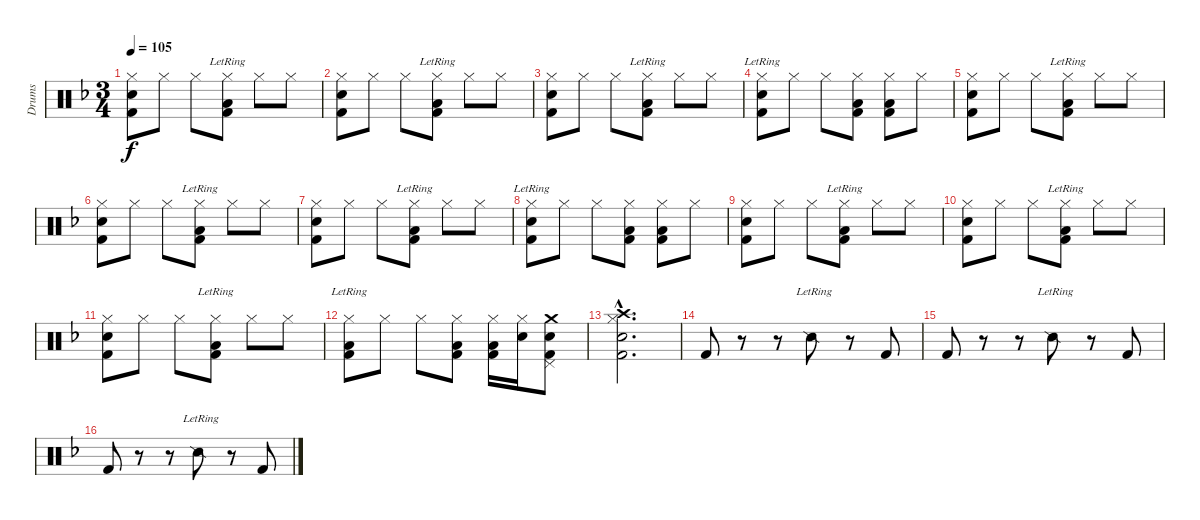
\track ("Drums" "Drums") {instrument percussion}
\staff {score}
\articulation defaults
\ts (3 4)
\tempo 105
\clef neutral
\ks f
("Hi-Hat (closed)" "Snare (hit) 2" "Kick (hit) 2").8{dy f} "Hi-Hat (closed)".8 "Hi-Hat (closed)".8 ("Hi-Hat (closed)" "Low Floor Tom (hit)"{lr} "Kick (hit) 2"{lr}).8 "Hi-Hat (closed)".8 "Hi-Hat (closed)".8 |
("Hi-Hat (closed)" "Snare (hit) 2" "Kick (hit) 2").8 "Hi-Hat (closed)".8 "Hi-Hat (closed)".8 ("Hi-Hat (closed)" "Low Floor Tom (hit)"{lr} "Kick (hit) 2"{lr}).8 "Hi-Hat (closed)".8 "Hi-Hat (closed)".8 |
("Hi-Hat (closed)" "Snare (hit) 2" "Kick (hit) 2").8 "Hi-Hat (closed)".8 "Hi-Hat (closed)".8 ("Hi-Hat (closed)" "Low Floor Tom (hit)"{lr} "Kick (hit) 2"{lr}).8 "Hi-Hat (closed)".8 "Hi-Hat (closed)".8 |
("Hi-Hat (closed)" "Snare (hit) 2"{lr} "Kick (hit) 2"{lr}).8 "Hi-Hat (closed)".8 "Hi-Hat (closed)".8 ("Hi-Hat (closed)" "Low Floor Tom (hit)" "Kick (hit) 2").8 ("Hi-Hat (closed)" "Low Floor Tom (hit)" "Kick (hit) 2").8 "Hi-Hat (closed)".8 |
("Hi-Hat (closed)" "Snare (hit) 2" "Kick (hit) 2").8 "Hi-Hat (closed)".8 "Hi-Hat (closed)".8 ("Hi-Hat (closed)" "Low Floor Tom (hit)"{lr} "Kick (hit) 2"{lr}).8 "Hi-Hat (closed)".8 "Hi-Hat (closed)".8 |
("Hi-Hat (closed)" "Snare (hit) 2" "Kick (hit) 2").8 "Hi-Hat (closed)".8 "Hi-Hat (closed)".8 ("Hi-Hat (closed)" "Low Floor Tom (hit)"{lr} "Kick (hit) 2"{lr}).8 "Hi-Hat (closed)".8 "Hi-Hat (closed)".8 |
("Hi-Hat (closed)" "Snare (hit) 2" "Kick (hit) 2").8 "Hi-Hat (closed)".8 "Hi-Hat (closed)".8 ("Hi-Hat (closed)" "Low Floor Tom (hit)"{lr} "Kick (hit) 2"{lr}).8 "Hi-Hat (closed)".8 "Hi-Hat (closed)".8 |
("Hi-Hat (closed)" "Snare (hit) 2"{lr} "Kick (hit) 2"{lr}).8 "Hi-Hat (closed)".8 "Hi-Hat (closed)".8 ("Hi-Hat (closed)" "Low Floor Tom (hit)" "Kick (hit) 2").8 ("Hi-Hat (closed)" "Low Floor Tom (hit)" "Kick (hit) 2").8 "Hi-Hat (closed)".8 |
("Hi-Hat (closed)" "Snare (hit) 2" "Kick (hit) 2").8 "Hi-Hat (closed)".8 "Hi-Hat (closed)".8 ("Hi-Hat (closed)" "Low Floor Tom (hit)"{lr} "Kick (hit) 2"{lr}).8 "Hi-Hat (closed)".8 "Hi-Hat (closed)".8 |
("Hi-Hat (closed)" "Snare (hit) 2" "Kick (hit) 2").8 "Hi-Hat (closed)".8 "Hi-Hat (closed)".8 ("Hi-Hat (closed)" "Low Floor Tom (hit)"{lr} "Kick (hit) 2"{lr}).8 "Hi-Hat (closed)".8 "Hi-Hat (closed)".8 |
("Hi-Hat (closed)" "Snare (hit) 2" "Kick (hit) 2").8 "Hi-Hat (closed)".8 "Hi-Hat (closed)".8 ("Hi-Hat (closed)" "Low Floor Tom (hit)"{lr} "Kick (hit) 2"{lr}).8 "Hi-Hat (closed)".8 "Hi-Hat (closed)".8 |
("Hi-Hat (closed)" "Low Floor Tom (hit)"{lr} "Kick (hit) 2"{lr}).8 "Hi-Hat (closed)".8 "Hi-Hat (closed)".8 ("Hi-Hat (closed)" "Low Floor Tom (hit)" "Kick (hit) 2").8 ("Hi-Hat (closed)" "Low Floor Tom (hit)" "Kick (hit) 2").16 ("Hi-Hat (closed)" "Electric Snare (hit)").16 ("Pedal Hi-Hat (hit)" "Crash medium (hit)" "Electric Snare (hit)" "Kick (hit) 2").8 |
("Hi-Hat (closed)"{hac} "Crash high (hit)"{hac} "Snare (hit) 2"{hac} "Kick (hit) 2"{hac}).2{d} |
"Kick (hit) 2".8 r.8 r.8 "Snare (side stick) 2"{lr}.8 r.8 "Kick (hit) 2".8 |
"Kick (hit) 2".8 r.8 r.8 "Snare (side stick) 2"{lr}.8 r.8 "Kick (hit) 2".8 |
"Kick (hit) 2".8 r.8 r.8 "Snare (side stick) 2"{lr}.8 r.8 "Kick (hit) 2".8
